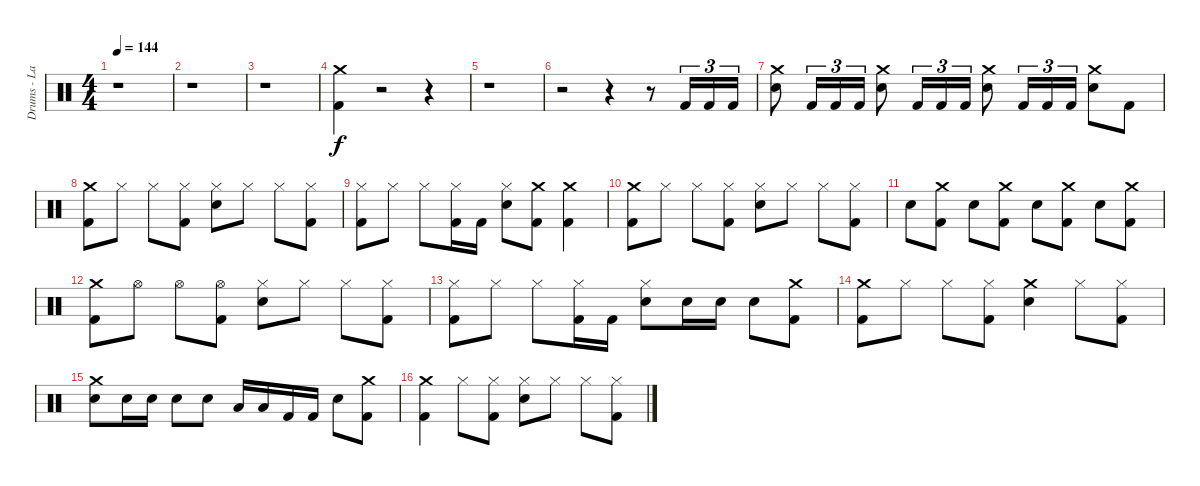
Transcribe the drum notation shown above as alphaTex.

\track ("Drums - Lars" "Drums - La") {instrument percussion}
\staff {score}
\articulation defaults
\ts (4 4)
\tempo 144
\clef neutral
\ks c
r.1{dy f} |
r.1 |
r.1 |
("Kick (hit) 2" "Crash medium (hit)").4 r.2 r.4 |
r.1 |
r.2 r.4 r.8 "Kick (hit) 2".16{tu (3 2)} "Kick (hit) 2".16{tu (3 2)} "Kick (hit) 2".16{tu (3 2)} |
("Snare (hit) 2" "Crash medium (hit)").8 "Kick (hit) 2".16{tu (3 2)} "Kick (hit) 2".16{tu (3 2)} "Kick (hit) 2".16{tu (3 2)} ("Snare (hit) 2" "Crash medium (hit)").8 "Kick (hit) 2".16{tu (3 2)} "Kick (hit) 2".16{tu (3 2)} "Kick (hit) 2".16{tu (3 2)} ("Snare (hit) 2" "Crash medium (hit)").8 "Kick (hit) 2".16{tu (3 2)} "Kick (hit) 2".16{tu (3 2)} "Kick (hit) 2".16{tu (3 2)} ("Snare (hit) 2" "Crash medium (hit)").8 "Kick (hit) 2".8 |
("Kick (hit) 2" "Crash medium (hit)").8 "Hi-Hat (closed)".8 "Hi-Hat (closed)".8 ("Kick (hit) 2" "Hi-Hat (closed)").8 ("Snare (hit) 2" "Hi-Hat (closed)").8 "Hi-Hat (closed)".8 "Hi-Hat (closed)".8 ("Kick (hit) 2" "Hi-Hat (closed)").8 |
("Hi-Hat (closed)" "Kick (hit) 2").8 "Hi-Hat (closed)".8 "Hi-Hat (closed)".8 ("Hi-Hat (closed)" "Kick (hit) 2").16 "Kick (hit) 2".16 ("Snare (hit) 2" "Hi-Hat (closed)").8 ("Kick (hit) 2" "Crash medium (hit)").8 ("Kick (hit) 2" "Crash medium (hit)").4 |
("Crash medium (hit)" "Kick (hit) 2").8 "Hi-Hat (closed)".8 "Hi-Hat (closed)".8 ("Kick (hit) 2" "Hi-Hat (closed)").8 ("Snare (hit) 2" "Hi-Hat (closed)").8 "Hi-Hat (closed)".8 "Hi-Hat (closed)".8 ("Kick (hit) 2" "Hi-Hat (closed)").8 |
"Snare (hit) 2".8 ("Kick (hit) 2" "Crash medium (hit)").8 "Snare (hit) 2".8 ("Kick (hit) 2" "Crash medium (hit)").8 "Snare (hit) 2".8 ("Kick (hit) 2" "Crash medium (hit)").8 "Snare (hit) 2".8 ("Kick (hit) 2" "Crash medium (hit)").8 |
("Kick (hit) 2" "Crash medium (hit)").8 "Hi-Hat (open)".8 "Hi-Hat (open)".8 ("Kick (hit) 2" "Hi-Hat (open)").8 ("Snare (hit) 2" "Hi-Hat (closed)").8 "Hi-Hat (closed)".8 "Hi-Hat (closed)".8 ("Kick (hit) 2" "Hi-Hat (closed)").8 |
("Hi-Hat (closed)" "Kick (hit) 2").8 "Hi-Hat (closed)".8 "Hi-Hat (closed)".8 ("Kick (hit) 2" "Hi-Hat (closed)").16 "Kick (hit) 2".16 ("Snare (hit) 2" "Hi-Hat (closed)").8 "Snare (hit) 2".16 "Snare (hit) 2".16 "Snare (hit) 2".8 ("Kick (hit) 2" "Crash medium (hit)").8 |
("Crash medium (hit)" "Kick (hit) 2").8 "Hi-Hat (closed)".8 "Hi-Hat (closed)".8 ("Kick (hit) 2" "Hi-Hat (closed)").8 ("Snare (hit) 2" "Crash medium (hit)").4 "Hi-Hat (closed)".8 ("Kick (hit) 2" "Hi-Hat (closed)").8 |
("Snare (hit) 2" "Crash medium (hit)").8 "Snare (hit) 2".16 "Snare (hit) 2".16 "Snare (hit) 2".8 "Snare (hit) 2".8 "Low Tom (hit)".16 "Low Tom (hit)".16 "Kick (hit) 2".16 "Kick (hit) 2".16 "Snare (hit) 2".8 ("Kick (hit) 2" "Crash medium (hit)").8 |
("Kick (hit) 2" "Crash medium (hit)").4 "Hi-Hat (closed)".8 ("Kick (hit) 2" "Hi-Hat (closed)").8 ("Snare (hit) 2" "Hi-Hat (closed)").8 "Hi-Hat (closed)".8 "Hi-Hat (closed)".8 ("Kick (hit) 2" "Hi-Hat (closed)").8
